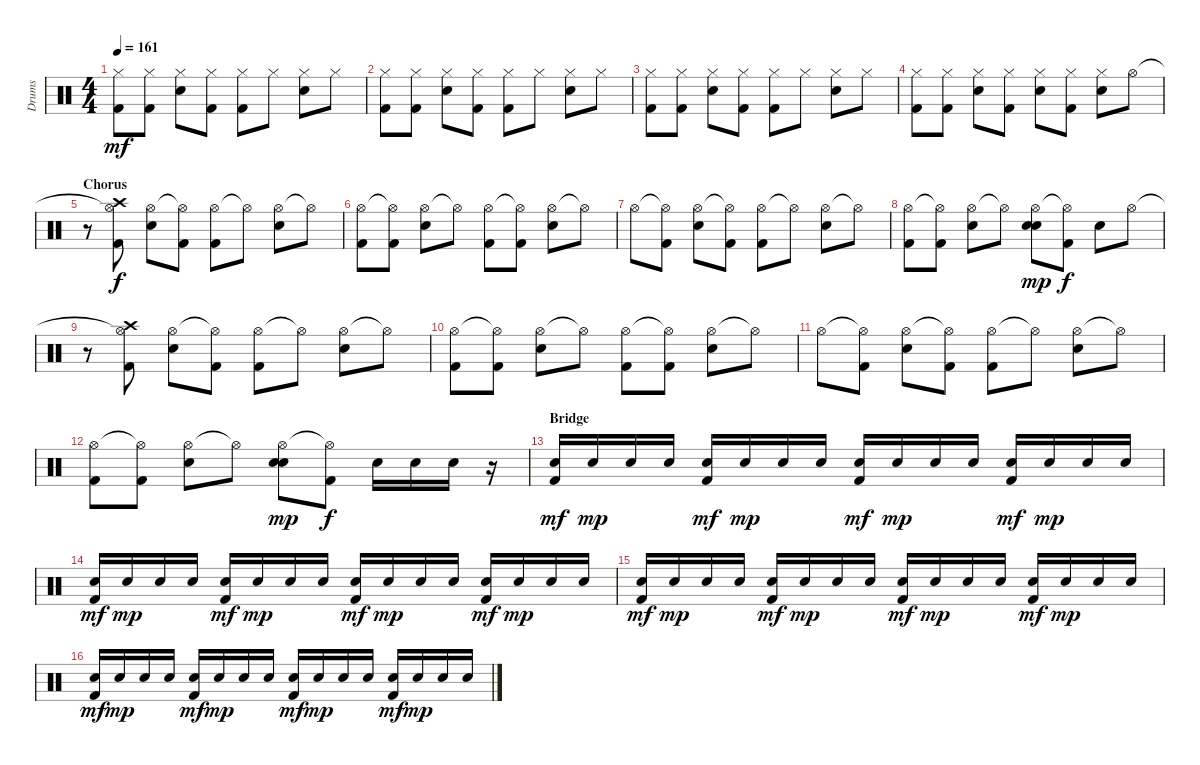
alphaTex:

\track ("Drums" "Drums") {instrument percussion}
\staff {score}
\articulation defaults
\ts (4 4)
\tempo 161
\clef neutral
\ks c
("Hi-Hat (closed)" "Kick (hit) 2").8{dy mf} ("Hi-Hat (closed)" "Kick (hit) 2").8 ("Hi-Hat (closed)" "Electric Snare (hit)").8 ("Hi-Hat (closed)" "Kick (hit) 2").8 ("Hi-Hat (closed)" "Kick (hit) 2").8 "Hi-Hat (closed)".8 ("Hi-Hat (closed)" "Electric Snare (hit)").8 "Hi-Hat (closed)".8 |
("Hi-Hat (closed)" "Kick (hit) 2").8 ("Hi-Hat (closed)" "Kick (hit) 2").8 ("Hi-Hat (closed)" "Electric Snare (hit)").8 ("Hi-Hat (closed)" "Kick (hit) 2").8 ("Hi-Hat (closed)" "Kick (hit) 2").8 "Hi-Hat (closed)".8 ("Hi-Hat (closed)" "Electric Snare (hit)").8 "Hi-Hat (closed)".8 |
("Hi-Hat (closed)" "Kick (hit) 2").8 ("Hi-Hat (closed)" "Kick (hit) 2").8 ("Hi-Hat (closed)" "Electric Snare (hit)").8 ("Hi-Hat (closed)" "Kick (hit) 2").8 ("Hi-Hat (closed)" "Kick (hit) 2").8 "Hi-Hat (closed)".8 ("Hi-Hat (closed)" "Electric Snare (hit)").8 "Hi-Hat (closed)".8 |
("Hi-Hat (closed)" "Kick (hit) 2").8 ("Hi-Hat (closed)" "Kick (hit) 2").8 ("Hi-Hat (closed)" "Electric Snare (hit)").8 ("Hi-Hat (closed)" "Kick (hit) 2").8 ("Hi-Hat (closed)" "Electric Snare (hit)").8 ("Hi-Hat (closed)" "Kick (hit) 2").8 ("Hi-Hat (closed)" "Electric Snare (hit)").8 "Hi-Hat (open)".8 |
\section ("" "Chorus")
r.8 ("Hi-Hat (open)"{t} "Kick (hit) 2" "Crash high (hit)").8{dy f} ("Hi-Hat (open)" "Electric Snare (hit)").8 ("Hi-Hat (open)"{t} "Kick (hit) 2").8 ("Hi-Hat (open)" "Kick (hit) 2").8 "Hi-Hat (open)"{t}.8 ("Hi-Hat (open)" "Electric Snare (hit)").8 "Hi-Hat (open)"{t}.8 |
("Hi-Hat (open)" "Kick (hit) 2").8 ("Hi-Hat (open)"{t} "Kick (hit) 2").8 ("Hi-Hat (open)" "Electric Snare (hit)").8 "Hi-Hat (open)"{t}.8 ("Hi-Hat (open)" "Kick (hit) 2").8 ("Hi-Hat (open)"{t} "Kick (hit) 2").8 ("Hi-Hat (open)" "Electric Snare (hit)").8 "Hi-Hat (open)"{t}.8 |
"Hi-Hat (open)".8 ("Hi-Hat (open)"{t} "Kick (hit) 2").8 ("Hi-Hat (open)" "Electric Snare (hit)").8 ("Hi-Hat (open)"{t} "Kick (hit) 2").8 ("Hi-Hat (open)" "Kick (hit) 2").8 "Hi-Hat (open)"{t}.8 ("Hi-Hat (open)" "Electric Snare (hit)").8 "Hi-Hat (open)"{t}.8 |
("Hi-Hat (open)" "Kick (hit) 2").8 ("Hi-Hat (open)"{t} "Kick (hit) 2").8 ("Hi-Hat (open)" "Electric Snare (hit)").8 "Hi-Hat (open)"{t}.8 ("Hi-Hat (open)" "Electric Snare (hit)" "Electric Snare (hit)").8{dy mp} ("Hi-Hat (open)"{t} "Kick (hit) 2").8{dy f} "Electric Snare (hit)".8 "Hi-Hat (open)".8 |
r.8 ("Hi-Hat (open)"{t} "Kick (hit) 2" "Crash high (hit)").8 ("Hi-Hat (open)" "Electric Snare (hit)").8 ("Hi-Hat (open)"{t} "Kick (hit) 2").8 ("Hi-Hat (open)" "Kick (hit) 2").8 "Hi-Hat (open)"{t}.8 ("Hi-Hat (open)" "Electric Snare (hit)").8 "Hi-Hat (open)"{t}.8 |
("Hi-Hat (open)" "Kick (hit) 2").8 ("Hi-Hat (open)"{t} "Kick (hit) 2").8 ("Hi-Hat (open)" "Electric Snare (hit)").8 "Hi-Hat (open)"{t}.8 ("Hi-Hat (open)" "Kick (hit) 2").8 ("Hi-Hat (open)"{t} "Kick (hit) 2").8 ("Hi-Hat (open)" "Electric Snare (hit)").8 "Hi-Hat (open)"{t}.8 |
"Hi-Hat (open)".8 ("Hi-Hat (open)"{t} "Kick (hit) 2").8 ("Hi-Hat (open)" "Electric Snare (hit)").8 ("Hi-Hat (open)"{t} "Kick (hit) 2").8 ("Hi-Hat (open)" "Kick (hit) 2").8 "Hi-Hat (open)"{t}.8 ("Hi-Hat (open)" "Electric Snare (hit)").8 "Hi-Hat (open)"{t}.8 |
("Hi-Hat (open)" "Kick (hit) 2").8 ("Hi-Hat (open)"{t} "Kick (hit) 2").8 ("Hi-Hat (open)" "Electric Snare (hit)").8 "Hi-Hat (open)"{t}.8 ("Hi-Hat (open)" "Electric Snare (hit)" "Electric Snare (hit)").8{dy mp} ("Hi-Hat (open)"{t} "Kick (hit) 2").8{dy f} "Electric Snare (hit)".16 "Electric Snare (hit)".16 "Electric Snare (hit)".16 r.16 |
\section ("" "Bridge")
("Kick (hit) 2" "Electric Snare (hit)").16{dy mf} "Electric Snare (hit)".16{dy mp} "Electric Snare (hit)".16 "Electric Snare (hit)".16 ("Kick (hit) 2" "Electric Snare (hit)").16{dy mf} "Electric Snare (hit)".16{dy mp} "Electric Snare (hit)".16 "Electric Snare (hit)".16 ("Kick (hit) 2" "Electric Snare (hit)").16{dy mf} "Electric Snare (hit)".16{dy mp} "Electric Snare (hit)".16 "Electric Snare (hit)".16 ("Kick (hit) 2" "Electric Snare (hit)").16{dy mf} "Electric Snare (hit)".16{dy mp} "Electric Snare (hit)".16 "Electric Snare (hit)".16 |
("Kick (hit) 2" "Electric Snare (hit)").16{dy mf} "Electric Snare (hit)".16{dy mp} "Electric Snare (hit)".16 "Electric Snare (hit)".16 ("Kick (hit) 2" "Electric Snare (hit)").16{dy mf} "Electric Snare (hit)".16{dy mp} "Electric Snare (hit)".16 "Electric Snare (hit)".16 ("Kick (hit) 2" "Electric Snare (hit)").16{dy mf} "Electric Snare (hit)".16{dy mp} "Electric Snare (hit)".16 "Electric Snare (hit)".16 ("Kick (hit) 2" "Electric Snare (hit)").16{dy mf} "Electric Snare (hit)".16{dy mp} "Electric Snare (hit)".16 "Electric Snare (hit)".16 |
("Kick (hit) 2" "Electric Snare (hit)").16{dy mf} "Electric Snare (hit)".16{dy mp} "Electric Snare (hit)".16 "Electric Snare (hit)".16 ("Kick (hit) 2" "Electric Snare (hit)").16{dy mf} "Electric Snare (hit)".16{dy mp} "Electric Snare (hit)".16 "Electric Snare (hit)".16 ("Kick (hit) 2" "Electric Snare (hit)").16{dy mf} "Electric Snare (hit)".16{dy mp} "Electric Snare (hit)".16 "Electric Snare (hit)".16 ("Kick (hit) 2" "Electric Snare (hit)").16{dy mf} "Electric Snare (hit)".16{dy mp} "Electric Snare (hit)".16 "Electric Snare (hit)".16 |
("Kick (hit) 2" "Electric Snare (hit)").16{dy mf} "Electric Snare (hit)".16{dy mp} "Electric Snare (hit)".16 "Electric Snare (hit)".16 ("Kick (hit) 2" "Electric Snare (hit)").16{dy mf} "Electric Snare (hit)".16{dy mp} "Electric Snare (hit)".16 "Electric Snare (hit)".16 ("Kick (hit) 2" "Electric Snare (hit)").16{dy mf} "Electric Snare (hit)".16{dy mp} "Electric Snare (hit)".16 "Electric Snare (hit)".16 ("Kick (hit) 2" "Electric Snare (hit)").16{dy mf} "Electric Snare (hit)".16{dy mp} "Electric Snare (hit)".16 "Electric Snare (hit)".16
